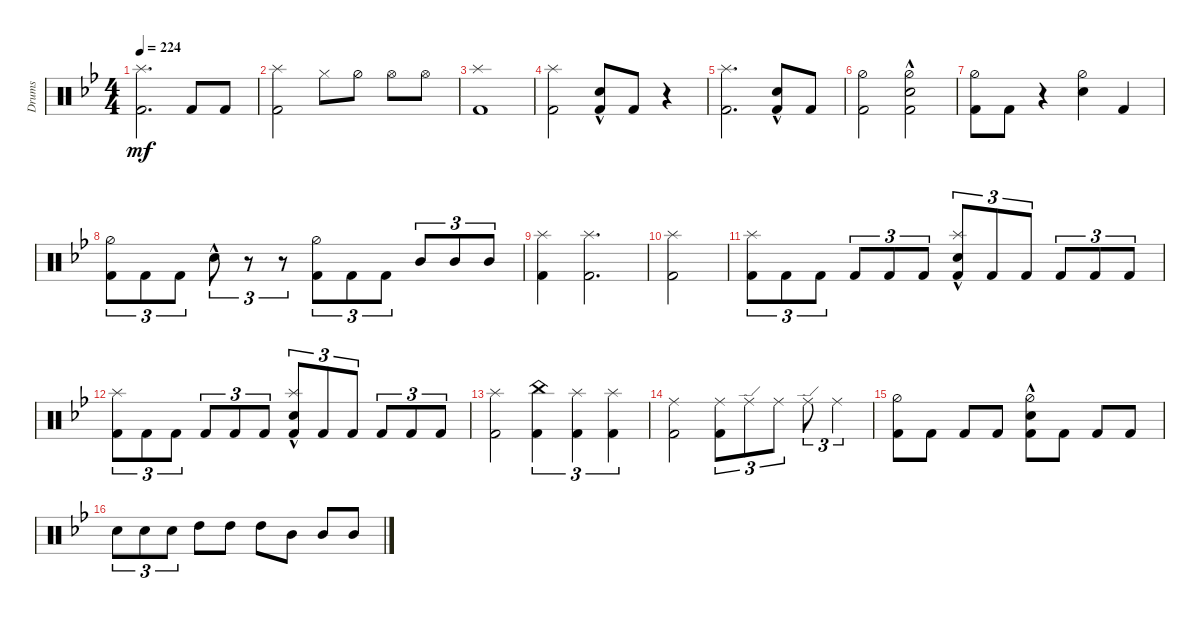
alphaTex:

\defaultSystemsLayout 4
\bracketExtendMode groupsimilarinstruments
\otherSystemsTrackNameOrientation horizontal
\track ("Drumkit" "Drums") {instrument percussion}
\staff {score}
\articulation defaults
\ts (4 4)
\tempo 224
\clef neutral
\scale
0.333333
\ks bb
("Splash (hit)"{acc forcenatural} "Kick (hit) 2"{acc forcenatural}).2{d dy mf beam Down} "Kick (hit) 2"{acc forcenatural}.8{beam Up} "Kick (hit) 2"{acc forcenatural}.8{beam Up} |
\scale
0.333333 ("Splash (hit)"{acc forcenatural} "Kick (hit) 2"{acc forcenatural}).2{beam Down} "Hi-Hat (closed)"{acc forcenatural}.8{beam Down} "Hi-Hat (half)"{acc forcenatural}.8{beam Down} "Hi-Hat (open)"{acc forcenatural}.8{beam Down} "Hi-Hat (open)"{acc forcenatural}.8{beam Down} |
\scale
0.333333 ("Splash (hit)"{acc forcenatural} "Kick (hit) 2"{acc forcenatural}).1{beam Down} |
\scale
0.333333 ("Kick (hit) 2"{acc forcenatural} "Splash (hit)"{acc forcenatural}).2{beam Down} ("Kick (hit) 2"{acc forcenatural} "Snare (hit) 2"{hac acc forcenatural}).8{beam Up} "Kick (hit) 2"{acc forcenatural}.8{beam Up} r.4{beam Up} |
\scale
0.333333 ("Kick (hit) 2"{acc forcenatural} "Splash (hit)"{acc forcenatural}).2{d beam Down} ("Kick (hit) 2"{acc forcenatural} "Snare (hit) 2"{hac acc forcenatural}).8{beam Up} "Kick (hit) 2"{acc forcenatural}.8{beam Up} |
\scale
0.333333 ("Kick (hit) 2"{acc forcenatural} "Hi-Hat (half)"{acc forcenatural}).2{beam Down} ("Hi-Hat (half)"{acc forcenatural} "Snare (hit) 2"{hac acc forcenatural} "Kick (hit) 2"{acc forcenatural}).2{beam Down} |
\scale
0.333333 ("Kick (hit) 2"{acc forcenatural} "Hi-Hat (half)"{acc forcenatural}).8{beam Down} "Kick (hit) 2"{acc forcenatural}.8{beam Down} r.4{beam Down} ("Snare (hit) 2"{acc forcenatural} "Hi-Hat (half)"{acc forcenatural}).4{beam Down} "Kick (hit) 2"{acc forcenatural}.4{beam Up} |
\scale
0.333333 ("Kick (hit) 2"{acc forcenatural} "Hi-Hat (half)"{acc forcenatural}).8{tu (3 2) beam Down} "Kick (hit) 2"{acc forcenatural}.8{tu (3 2) beam Down} "Kick (hit) 2"{acc forcenatural}.8{tu (3 2) beam Down} "Snare (hit) 2"{hac acc forcenatural}.8{tu (3 2) beam Down} r.8{tu (3 2) beam Down} r.8{tu (3 2) beam Down} ("Kick (hit) 2"{acc forcenatural} "Hi-Hat (half)"{acc forcenatural}).8{tu (3 2) beam Down} "Kick (hit) 2"{acc forcenatural}.8{tu (3 2) beam Down} "Kick (hit) 2"{acc forcenatural}.8{tu (3 2) beam Down} "Mid Tom (hit)"{acc forcenatural}.8{tu (3 2) beam Up} "Mid Tom (hit)"{acc forcenatural}.8{tu (3 2) beam Up} "Mid Tom (hit)"{acc forcenatural}.8{tu (3 2) beam Up} |
\scale
0.333333 ("Splash (hit)"{acc forcenatural} "Kick (hit) 2"{acc forcenatural}).4{beam Down} ("Splash (hit)"{acc forcenatural} "Kick (hit) 2"{acc forcenatural}).2{d beam Down} |
\scale
0.333333 ("Kick (hit) 2"{acc forcenatural} "Splash (hit)"{acc forcenatural}).2{beam Down} |
\scale
0.333333 ("Splash (hit)"{acc forcenatural} "Kick (hit) 2"{acc forcenatural}).8{tu (3 2) beam Down} "Kick (hit) 2"{acc forcenatural}.8{tu (3 2) beam Down} "Kick (hit) 2"{acc forcenatural}.8{tu (3 2) beam Down} "Kick (hit) 2"{acc forcenatural}.8{tu (3 2) beam Up} "Kick (hit) 2"{acc forcenatural}.8{tu (3 2) beam Up} "Kick (hit) 2"{acc forcenatural}.8{tu (3 2) beam Up} ("Kick (hit) 2"{acc forcenatural} "Splash (hit)"{acc forcenatural} "Snare (hit) 2"{hac acc forcenatural}).8{tu (3 2) beam Up} "Kick (hit) 2"{acc forcenatural}.8{tu (3 2) beam Up} "Kick (hit) 2"{acc forcenatural}.8{tu (3 2) beam Up} "Kick (hit) 2"{acc forcenatural}.8{tu (3 2) beam Up} "Kick (hit) 2"{acc forcenatural}.8{tu (3 2) beam Up} "Kick (hit) 2"{acc forcenatural}.8{tu (3 2) beam Up} |
\scale
0.333333 ("Splash (hit)"{acc forcenatural} "Kick (hit) 2"{acc forcenatural}).8{tu (3 2) beam Down} "Kick (hit) 2"{acc forcenatural}.8{tu (3 2) beam Down} "Kick (hit) 2"{acc forcenatural}.8{tu (3 2) beam Down} "Kick (hit) 2"{acc forcenatural}.8{tu (3 2) beam Up} "Kick (hit) 2"{acc forcenatural}.8{tu (3 2) beam Up} "Kick (hit) 2"{acc forcenatural}.8{tu (3 2) beam Up} ("Kick (hit) 2"{acc forcenatural} "Splash (hit)"{acc forcenatural} "Snare (hit) 2"{hac acc forcenatural}).8{tu (3 2) beam Up} "Kick (hit) 2"{acc forcenatural}.8{tu (3 2) beam Up} "Kick (hit) 2"{acc forcenatural}.8{tu (3 2) beam Up} "Kick (hit) 2"{acc forcenatural}.8{tu (3 2) beam Up} "Kick (hit) 2"{acc forcenatural}.8{tu (3 2) beam Up} "Kick (hit) 2"{acc forcenatural}.8{tu (3 2) beam Up} |
\scale
0.333333 ("Splash (hit)"{acc forcenatural} "Kick (hit) 2"{acc forcenatural}).2{beam Down} ("Kick (hit) 2"{acc forcenatural} "China (hit)"{acc forcenatural}).4{tu (3 2) beam Down} ("Kick (hit) 2"{acc forcenatural} "Splash (hit)"{acc forcenatural}).4{tu (3 2) beam Down} ("Kick (hit) 2"{acc forcenatural} "Splash (hit)"{acc forcenatural}).4{tu (3 2) beam Down} |
\scale
0.311111 ("Ride (middle)"{acc forcenatural} "Kick (hit) 2"{acc forcenatural}).2{beam Down} ("Ride (middle)"{acc forcenatural} "Kick (hit) 2"{acc forcenatural}).8{tu (3 2) beam Down} "Ride (edge)"{acc forcenatural}.8{tu (3 2) beam Down} "Ride (middle)"{acc forcenatural}.8{tu (3 2) beam Down} "Ride (edge)"{acc forcenatural}.8{tu (3 2) beam Down} "Ride (middle)"{acc forcenatural}.4{tu (3 2) beam Down} |
("Kick (hit) 2"{acc forcenatural} "Hi-Hat (half)"{acc forcenatural}).8{beam Down} "Kick (hit) 2"{acc forcenatural}.8{beam Down} "Kick (hit) 2"{acc forcenatural}.8{beam Up} "Kick (hit) 2"{acc forcenatural}.8{beam Up} ("Kick (hit) 2"{acc forcenatural} "Hi-Hat (half)"{acc forcenatural} "Snare (hit) 2"{hac acc forcenatural}).8{beam Down} "Kick (hit) 2"{acc forcenatural}.8{beam Down} "Kick (hit) 2"{acc forcenatural}.8{beam Up} "Kick (hit) 2"{acc forcenatural}.8{beam Up} |
"Snare (hit) 2"{acc forcenatural}.8{tu (3 2) beam Down} "Snare (hit) 2"{acc forcenatural}.8{tu (3 2) beam Down} "Snare (hit) 2"{acc forcenatural}.8{tu (3 2) beam Down} "High Tom (hit)"{acc forcenatural}.8{beam Down} "High Tom (hit)"{acc forcenatural}.8{beam Down} "High Tom (hit)"{acc forcenatural}.8{beam Down} "Mid Tom (hit)"{acc forcenatural}.8{beam Down} "Mid Tom (hit)"{acc forcenatural}.8{beam Up} "Mid Tom (hit)"{acc forcenatural}.8{beam Up}
